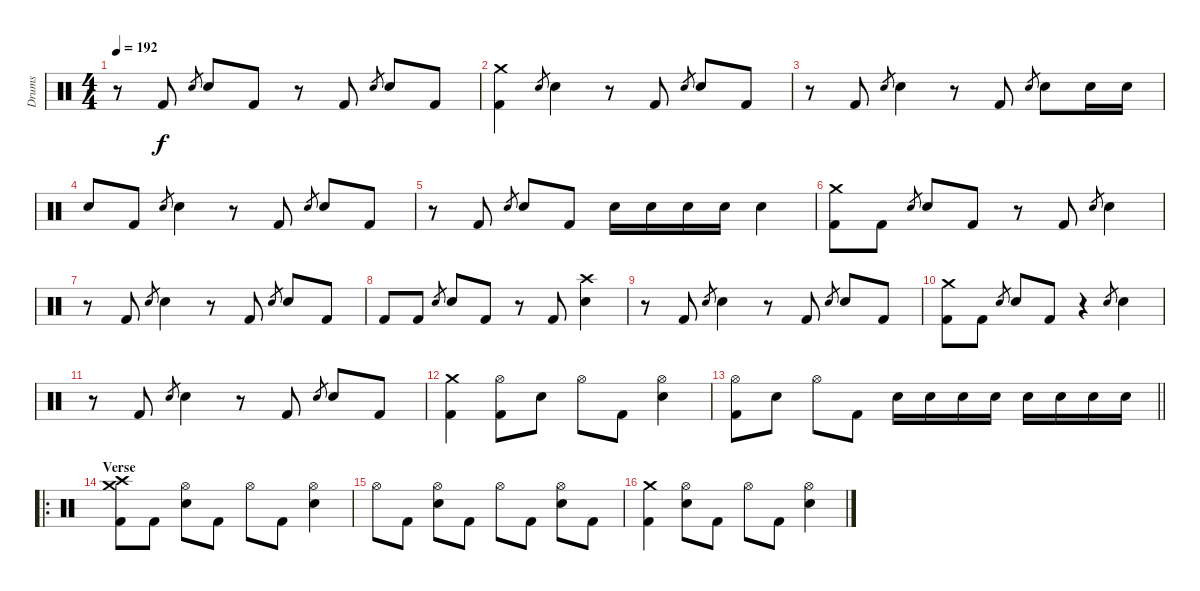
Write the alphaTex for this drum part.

\track ("Drums" "Drums") {instrument percussion}
\staff {score}
\articulation defaults
\ts (4 4)
\tempo 192
\clef neutral
\ks c
r.8{dy f} "Kick (hit) 2".8 "Electric Snare (hit)".8{gr} "Electric Snare (hit)".8 "Kick (hit) 2".8 r.8 "Kick (hit) 2".8 "Electric Snare (hit)".8{gr} "Electric Snare (hit)".8 "Kick (hit) 2".8 |
("Crash medium (hit)" "Kick (hit) 2").4 "Electric Snare (hit)".8{gr} "Electric Snare (hit)".4 r.8 "Kick (hit) 2".8 "Electric Snare (hit)".8{gr} "Electric Snare (hit)".8 "Kick (hit) 2".8 |
r.8 "Kick (hit) 2".8 "Electric Snare (hit)".8{gr} "Electric Snare (hit)".4 r.8 "Kick (hit) 2".8 "Electric Snare (hit)".8{gr} "Electric Snare (hit)".8 "Electric Snare (hit)".16 "Electric Snare (hit)".16 |
"Electric Snare (hit)".8 "Kick (hit) 2".8 "Electric Snare (hit)".8{gr} "Electric Snare (hit)".4 r.8 "Kick (hit) 2".8 "Electric Snare (hit)".8{gr} "Electric Snare (hit)".8 "Kick (hit) 2".8 |
r.8 "Kick (hit) 2".8 "Electric Snare (hit)".8{gr} "Electric Snare (hit)".8 "Kick (hit) 2".8 "Electric Snare (hit)".16 "Electric Snare (hit)".16 "Electric Snare (hit)".16 "Electric Snare (hit)".16 "Electric Snare (hit)".4 |
("Crash medium (hit)" "Kick (hit) 2").8 "Kick (hit) 2".8 "Electric Snare (hit)".8{gr} "Electric Snare (hit)".8 "Kick (hit) 2".8 r.8 "Kick (hit) 2".8 "Electric Snare (hit)".8{gr} "Electric Snare (hit)".4 |
r.8 "Kick (hit) 2".8 "Electric Snare (hit)".8{gr} "Electric Snare (hit)".4 r.8 "Kick (hit) 2".8 "Electric Snare (hit)".8{gr} "Electric Snare (hit)".8 "Kick (hit) 2".8 |
"Kick (hit) 2".8 "Kick (hit) 2".8 "Electric Snare (hit)".8{gr} "Electric Snare (hit)".8 "Kick (hit) 2".8 r.8 "Kick (hit) 2".8 ("Crash high (hit)" "Electric Snare (hit)").4 |
r.8 "Kick (hit) 2".8 "Electric Snare (hit)".8{gr} "Electric Snare (hit)".4 r.8 "Kick (hit) 2".8 "Electric Snare (hit)".8{gr} "Electric Snare (hit)".8 "Kick (hit) 2".8 |
("Crash medium (hit)" "Kick (hit) 2").8 "Kick (hit) 2".8 "Electric Snare (hit)".8{gr} "Electric Snare (hit)".8 "Kick (hit) 2".8 r.4 "Electric Snare (hit)".8{gr} "Electric Snare (hit)".4 |
r.8 "Kick (hit) 2".8 "Electric Snare (hit)".8{gr} "Electric Snare (hit)".4 r.8 "Kick (hit) 2".8 "Electric Snare (hit)".8{gr} "Electric Snare (hit)".8 "Kick (hit) 2".8 |
("Crash medium (hit)" "Kick (hit) 2").4 ("Hi-Hat (open)" "Kick (hit) 2").8 "Electric Snare (hit)".8 "Hi-Hat (open)".8 "Kick (hit) 2".8 ("Hi-Hat (open)" "Electric Snare (hit)").4 |
\barLineRight lightlight
("Hi-Hat (open)" "Kick (hit) 2").8 "Electric Snare (hit)".8 "Hi-Hat (open)".8 "Kick (hit) 2".8 "Electric Snare (hit)".16 "Electric Snare (hit)".16 "Electric Snare (hit)".16 "Electric Snare (hit)".16 "Electric Snare (hit)".16 "Electric Snare (hit)".16 "Electric Snare (hit)".16 "Electric Snare (hit)".16 |
\ro
\section ("" "Verse")
("Crash medium (hit)" "Crash high (hit)" "Kick (hit) 2").8 "Kick (hit) 2".8 ("Hi-Hat (open)" "Electric Snare (hit)").8 "Kick (hit) 2".8 "Hi-Hat (open)".8 "Kick (hit) 2".8 ("Hi-Hat (open)" "Electric Snare (hit)").4 |
"Hi-Hat (open)".8 "Kick (hit) 2".8 ("Hi-Hat (open)" "Electric Snare (hit)").8 "Kick (hit) 2".8 "Hi-Hat (open)".8 "Kick (hit) 2".8 ("Hi-Hat (open)" "Electric Snare (hit)").8 "Kick (hit) 2".8 |
("Crash medium (hit)" "Kick (hit) 2").4 ("Hi-Hat (open)" "Electric Snare (hit)").8 "Kick (hit) 2".8 "Hi-Hat (open)".8 "Kick (hit) 2".8 ("Hi-Hat (open)" "Electric Snare (hit)").4
